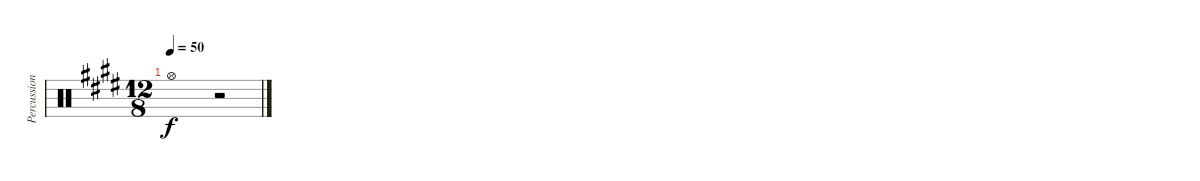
\track ("Percussioni" "Percussion") {instrument percussion}
\staff {score}
\articulation defaults
\ts (12 8)
\tempo 50
\clef neutral
\ks e "Hi-Hat (open)".1{dy f}
r.2
